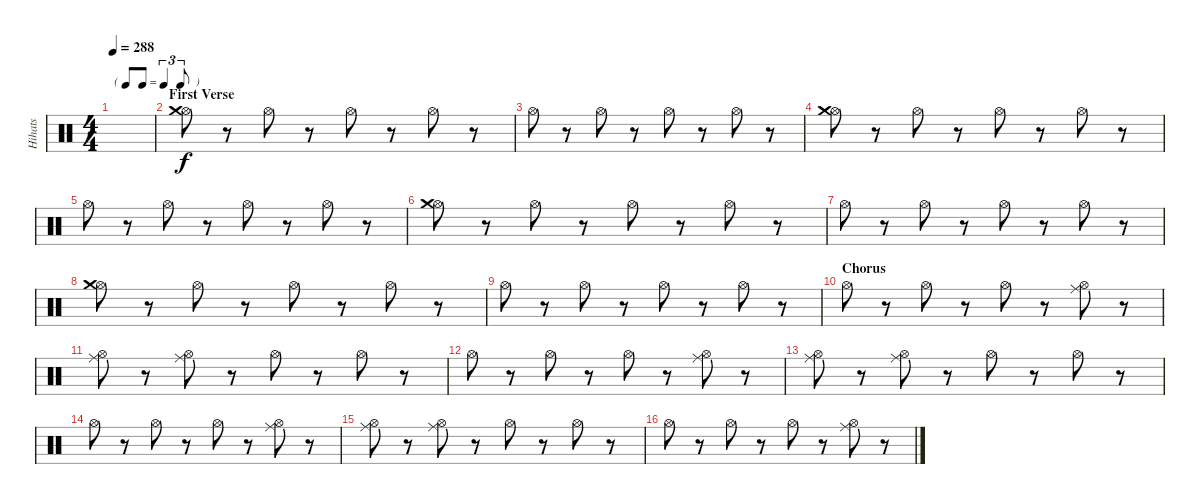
\track ("Hihats" "Hihats") {instrument percussion}
\staff {score}
\articulation defaults
\ts (4 4)
\tf triplet8th
\tempo 288
\clef neutral
\ks c
|
\section ("" "First Verse")
("Hi-Hat (open)" "Crash medium (hit)").8 r.8 "Hi-Hat (open)".8 r.8 "Hi-Hat (open)".8 r.8 "Hi-Hat (open)".8 r.8 |
"Hi-Hat (open)".8 r.8 "Hi-Hat (open)".8 r.8 "Hi-Hat (open)".8 r.8 "Hi-Hat (open)".8 r.8 |
("Hi-Hat (open)" "Crash medium (hit)").8 r.8 "Hi-Hat (open)".8 r.8 "Hi-Hat (open)".8 r.8 "Hi-Hat (open)".8 r.8 |
"Hi-Hat (open)".8 r.8 "Hi-Hat (open)".8 r.8 "Hi-Hat (open)".8 r.8 "Hi-Hat (open)".8 r.8 |
("Hi-Hat (open)" "Crash medium (hit)").8 r.8 "Hi-Hat (open)".8 r.8 "Hi-Hat (open)".8 r.8 "Hi-Hat (open)".8 r.8 |
"Hi-Hat (open)".8 r.8 "Hi-Hat (open)".8 r.8 "Hi-Hat (open)".8 r.8 "Hi-Hat (open)".8 r.8 |
("Hi-Hat (open)" "Crash medium (hit)").8 r.8 "Hi-Hat (open)".8 r.8 "Hi-Hat (open)".8 r.8 "Hi-Hat (open)".8 r.8 |
"Hi-Hat (open)".8 r.8 "Hi-Hat (open)".8 r.8 "Hi-Hat (open)".8 r.8 "Hi-Hat (open)".8 r.8 |
\section ("" "Chorus")
"Hi-Hat (open)".8 r.8 "Hi-Hat (open)".8 r.8 "Hi-Hat (open)".8 r.8 ("Hi-Hat (open)" "Ride (middle)").8 r.8 |
("Hi-Hat (open)" "Ride (middle)").8 r.8 ("Hi-Hat (open)" "Ride (middle)").8 r.8 "Hi-Hat (open)".8 r.8 "Hi-Hat (open)".8 r.8 |
"Hi-Hat (open)".8 r.8 "Hi-Hat (open)".8 r.8 "Hi-Hat (open)".8 r.8 ("Hi-Hat (open)" "Ride (middle)").8 r.8 |
("Hi-Hat (open)" "Ride (middle)").8 r.8 ("Hi-Hat (open)" "Ride (middle)").8 r.8 "Hi-Hat (open)".8 r.8 "Hi-Hat (open)".8 r.8 |
"Hi-Hat (open)".8 r.8 "Hi-Hat (open)".8 r.8 "Hi-Hat (open)".8 r.8 ("Hi-Hat (open)" "Ride (middle)").8 r.8 |
("Hi-Hat (open)" "Ride (middle)").8 r.8 ("Hi-Hat (open)" "Ride (middle)").8 r.8 "Hi-Hat (open)".8 r.8 "Hi-Hat (open)".8 r.8 |
"Hi-Hat (open)".8 r.8 "Hi-Hat (open)".8 r.8 "Hi-Hat (open)".8 r.8 ("Hi-Hat (open)" "Ride (middle)").8 r.8
